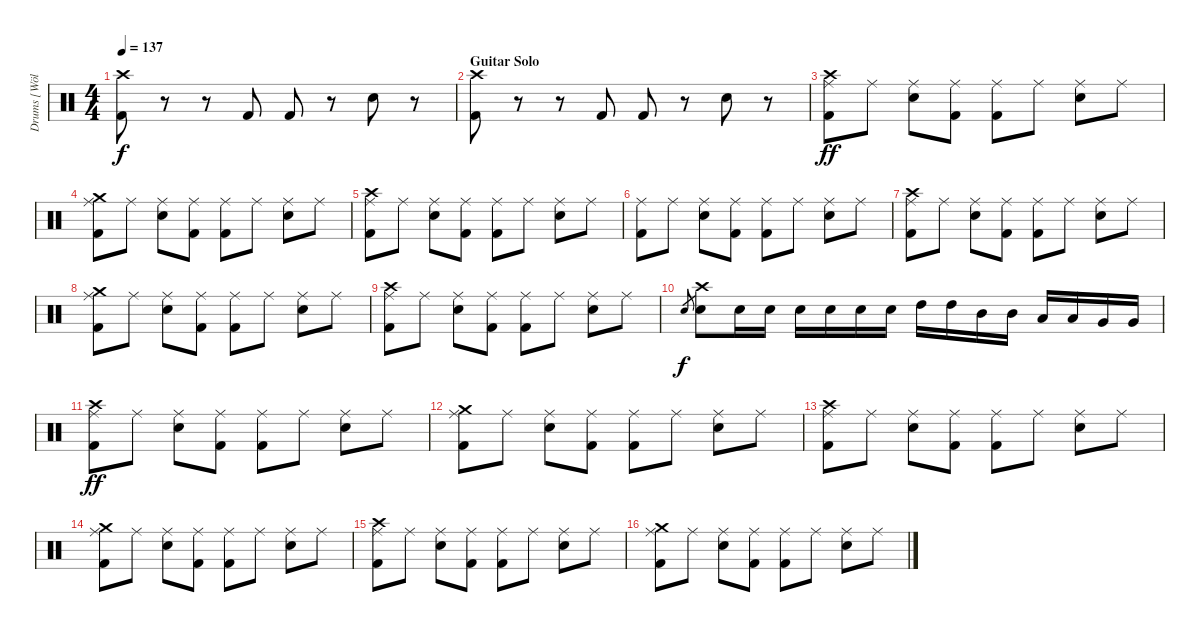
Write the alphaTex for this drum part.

\track ("Drums [Wölli]" "Drums [Wöl") {instrument percussion}
\staff {score}
\articulation defaults
\ts (4 4)
\tempo 137
\clef neutral
\ks c
("Kick (hit) 2" "Crash high (hit)").8{dy f} r.8 r.8 "Kick (hit) 2".8 "Kick (hit) 2".8 r.8 "Snare (hit) 2".8 r.8 |
\section ("" "Guitar Solo")
("Kick (hit) 2" "Crash high (hit)").8 r.8 r.8 "Kick (hit) 2".8 "Kick (hit) 2".8 r.8 "Snare (hit) 2".8 r.8 |
("Ride (middle)" "Kick (hit) 2" "Crash high (hit)").8{dy ff} "Ride (middle)".8 ("Ride (middle)" "Snare (hit) 2").8 ("Ride (middle)" "Kick (hit) 2").8 ("Ride (middle)" "Kick (hit) 2").8 "Ride (middle)".8 ("Ride (middle)" "Snare (hit) 2").8 "Ride (middle)".8 |
("Ride (middle)" "Kick (hit) 2" "Crash medium (hit)").8 "Ride (middle)".8 ("Ride (middle)" "Snare (hit) 2").8 ("Ride (middle)" "Kick (hit) 2").8 ("Ride (middle)" "Kick (hit) 2").8 "Ride (middle)".8 ("Ride (middle)" "Snare (hit) 2").8 "Ride (middle)".8 |
("Ride (middle)" "Kick (hit) 2" "Crash high (hit)").8 "Ride (middle)".8 ("Ride (middle)" "Snare (hit) 2").8 ("Ride (middle)" "Kick (hit) 2").8 ("Ride (middle)" "Kick (hit) 2").8 "Ride (middle)".8 ("Ride (middle)" "Snare (hit) 2").8 "Ride (middle)".8 |
("Ride (middle)" "Kick (hit) 2").8 "Ride (middle)".8 ("Ride (middle)" "Snare (hit) 2").8 ("Ride (middle)" "Kick (hit) 2").8 ("Ride (middle)" "Kick (hit) 2").8 "Ride (middle)".8 ("Ride (middle)" "Snare (hit) 2").8 "Ride (middle)".8 |
("Ride (middle)" "Kick (hit) 2" "Crash high (hit)").8 "Ride (middle)".8 ("Ride (middle)" "Snare (hit) 2").8 ("Ride (middle)" "Kick (hit) 2").8 ("Ride (middle)" "Kick (hit) 2").8 "Ride (middle)".8 ("Ride (middle)" "Snare (hit) 2").8 "Ride (middle)".8 |
("Ride (middle)" "Kick (hit) 2" "Crash medium (hit)").8 "Ride (middle)".8 ("Ride (middle)" "Snare (hit) 2").8 ("Ride (middle)" "Kick (hit) 2").8 ("Ride (middle)" "Kick (hit) 2").8 "Ride (middle)".8 ("Ride (middle)" "Snare (hit) 2").8 "Ride (middle)".8 |
("Ride (middle)" "Kick (hit) 2" "Crash high (hit)").8 "Ride (middle)".8 ("Ride (middle)" "Snare (hit) 2").8 ("Ride (middle)" "Kick (hit) 2").8 ("Ride (middle)" "Kick (hit) 2").8 "Ride (middle)".8 ("Ride (middle)" "Snare (hit) 2").8 "Ride (middle)".8 |
"Snare (hit) 2".8{gr dy f} ("Snare (hit) 2" "Crash high (hit)").8 "Snare (hit) 2".16 "Snare (hit) 2".16 "Snare (hit) 2".16 "Snare (hit) 2".16 "Snare (hit) 2".16 "Snare (hit) 2".16 "High Tom (hit)".16 "High Tom (hit)".16 "Mid Tom (hit)".16 "Mid Tom (hit)".16 "Low Tom (hit)".16 "Low Tom (hit)".16 "Very Low Tom (hit)".16 "Very Low Tom (hit)".16 |
("Ride (middle)" "Kick (hit) 2" "Crash high (hit)").8{dy ff} "Ride (middle)".8 ("Ride (middle)" "Snare (hit) 2").8 ("Ride (middle)" "Kick (hit) 2").8 ("Ride (middle)" "Kick (hit) 2").8 "Ride (middle)".8 ("Ride (middle)" "Snare (hit) 2").8 "Ride (middle)".8 |
("Ride (middle)" "Kick (hit) 2" "Crash medium (hit)").8 "Ride (middle)".8 ("Ride (middle)" "Snare (hit) 2").8 ("Ride (middle)" "Kick (hit) 2").8 ("Ride (middle)" "Kick (hit) 2").8 "Ride (middle)".8 ("Ride (middle)" "Snare (hit) 2").8 "Ride (middle)".8 |
("Ride (middle)" "Kick (hit) 2" "Crash high (hit)").8 "Ride (middle)".8 ("Ride (middle)" "Snare (hit) 2").8 ("Ride (middle)" "Kick (hit) 2").8 ("Ride (middle)" "Kick (hit) 2").8 "Ride (middle)".8 ("Ride (middle)" "Snare (hit) 2").8 "Ride (middle)".8 |
("Ride (middle)" "Kick (hit) 2" "Crash medium (hit)").8 "Ride (middle)".8 ("Ride (middle)" "Snare (hit) 2").8 ("Ride (middle)" "Kick (hit) 2").8 ("Ride (middle)" "Kick (hit) 2").8 "Ride (middle)".8 ("Ride (middle)" "Snare (hit) 2").8 "Ride (middle)".8 |
("Ride (middle)" "Kick (hit) 2" "Crash high (hit)").8 "Ride (middle)".8 ("Ride (middle)" "Snare (hit) 2").8 ("Ride (middle)" "Kick (hit) 2").8 ("Ride (middle)" "Kick (hit) 2").8 "Ride (middle)".8 ("Ride (middle)" "Snare (hit) 2").8 "Ride (middle)".8 |
("Ride (middle)" "Kick (hit) 2" "Crash medium (hit)").8 "Ride (middle)".8 ("Ride (middle)" "Snare (hit) 2").8 ("Ride (middle)" "Kick (hit) 2").8 ("Ride (middle)" "Kick (hit) 2").8 "Ride (middle)".8 ("Ride (middle)" "Snare (hit) 2").8 "Ride (middle)".8
